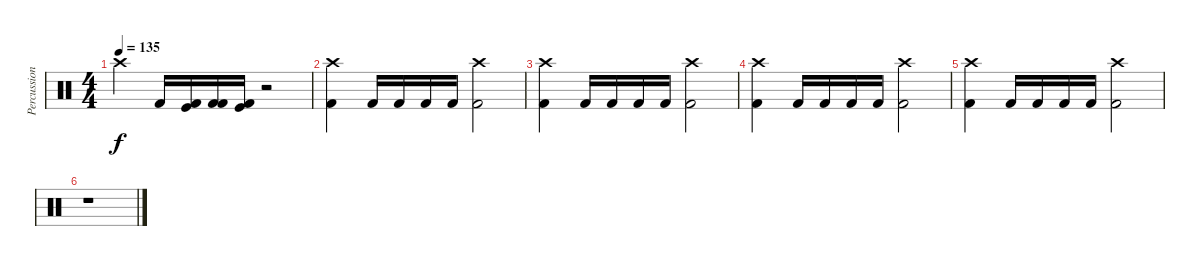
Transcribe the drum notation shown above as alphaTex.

\track ("Percussion" "Percussion") {instrument percussion}
\staff {score}
\articulation defaults
\ts (4 4)
\tempo 135
\clef neutral
\ks c "Crash high (hit)".4{dy f} "Kick (hit) 2".16
("Kick (hit)" "Kick (hit) 2").16 ("Kick (hit) 2" "Kick (hit) 2").16 ("Kick (hit)" "Kick (hit) 2").16 r.2 |
("Crash high (hit)" "Kick (hit) 2").4 "Kick (hit) 2".16 "Kick (hit) 2".16 "Kick (hit) 2".16 "Kick (hit) 2".16 ("Crash high (hit)" "Kick (hit) 2").2 |
("Crash high (hit)" "Kick (hit) 2").4 "Kick (hit) 2".16 "Kick (hit) 2".16 "Kick (hit) 2".16 "Kick (hit) 2".16 ("Crash high (hit)" "Kick (hit) 2").2 |
("Crash high (hit)" "Kick (hit) 2").4 "Kick (hit) 2".16 "Kick (hit) 2".16 "Kick (hit) 2".16 "Kick (hit) 2".16 ("Crash high (hit)" "Kick (hit) 2").2 |
("Crash high (hit)" "Kick (hit) 2").4 "Kick (hit) 2".16 "Kick (hit) 2".16 "Kick (hit) 2".16 "Kick (hit) 2".16 ("Crash high (hit)" "Kick (hit) 2").2 |
r.1
